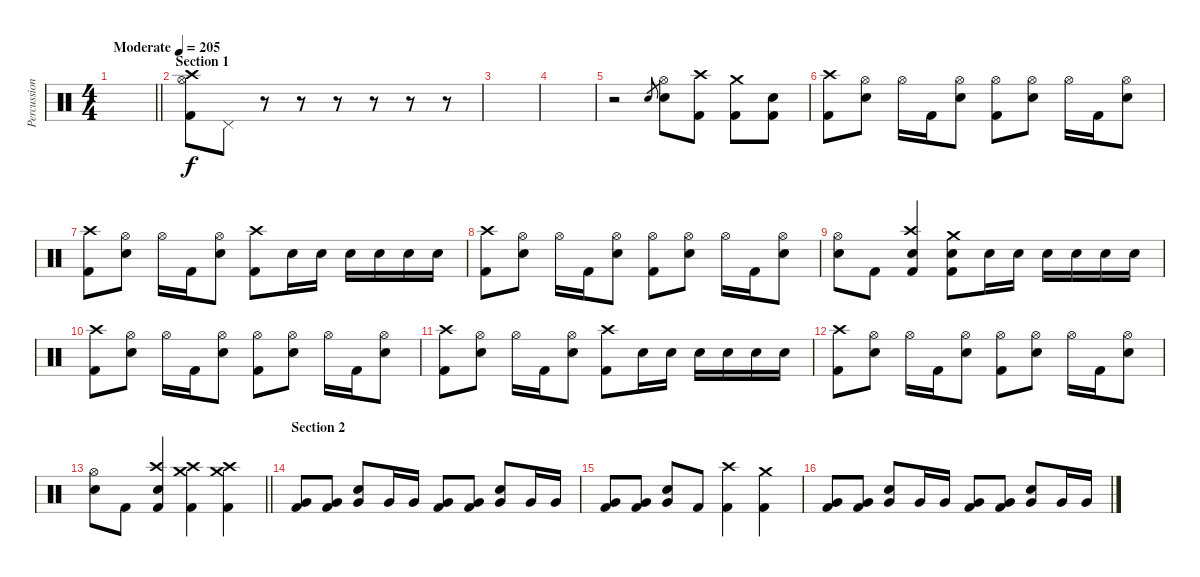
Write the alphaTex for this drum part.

\track ("Percussion" "Percussion") {instrument percussion}
\staff {score}
\articulation defaults
\ts (4 4)
\tempo (205 "Moderate")
\clef neutral
\barLineRight lightlight
\ks c
|
\section ("" "Section 1")
("Hi-Hat (open)" "Kick (hit) 2" "Crash high (hit)").8 "Pedal Hi-Hat (hit)".8 r.8 r.8 r.8 r.8 r.8 r.8 |
|
|
r.2 "Electric Snare (hit)".8{gr} ("Electric Snare (hit)" "Hi-Hat (open)").8 ("Crash high (hit)" "Kick (hit) 2").8 ("Crash medium (hit)" "Kick (hit) 2").8 ("Electric Snare (hit)" "Kick (hit) 2").8 |
("Crash high (hit)" "Kick (hit) 2").8 ("Hi-Hat (open)" "Electric Snare (hit)").8 "Hi-Hat (open)".16 "Kick (hit) 2".16 ("Hi-Hat (open)" "Electric Snare (hit)").8 ("Hi-Hat (open)" "Kick (hit) 2").8 ("Hi-Hat (open)" "Electric Snare (hit)").8 "Hi-Hat (open)".16 "Kick (hit) 2".16 ("Hi-Hat (open)" "Electric Snare (hit)").8 |
("Crash high (hit)" "Kick (hit) 2").8 ("Hi-Hat (open)" "Electric Snare (hit)").8 "Hi-Hat (open)".16 "Kick (hit) 2".16 ("Hi-Hat (open)" "Electric Snare (hit)").8 ("Crash high (hit)" "Kick (hit) 2").8 "Electric Snare (hit)".16 "Electric Snare (hit)".16 "Electric Snare (hit)".16 "Electric Snare (hit)".16 "Electric Snare (hit)".16 "Electric Snare (hit)".16 |
("Crash high (hit)" "Kick (hit) 2").8 ("Hi-Hat (open)" "Electric Snare (hit)").8 "Hi-Hat (open)".16 "Kick (hit) 2".16 ("Hi-Hat (open)" "Electric Snare (hit)").8 ("Hi-Hat (open)" "Kick (hit) 2").8 ("Hi-Hat (open)" "Electric Snare (hit)").8 "Hi-Hat (open)".16 "Kick (hit) 2".16 ("Hi-Hat (open)" "Electric Snare (hit)").8 |
("Hi-Hat (open)" "Electric Snare (hit)").8 "Kick (hit) 2".8 ("Crash high (hit)" "Electric Snare (hit)" "Kick (hit) 2").4 ("Crash medium (hit)" "Electric Snare (hit)" "Kick (hit) 2").8 "Electric Snare (hit)".16 "Electric Snare (hit)".16 "Electric Snare (hit)".16 "Electric Snare (hit)".16 "Electric Snare (hit)".16 "Electric Snare (hit)".16 |
("Crash high (hit)" "Kick (hit) 2").8 ("Hi-Hat (open)" "Electric Snare (hit)").8 "Hi-Hat (open)".16 "Kick (hit) 2".16 ("Hi-Hat (open)" "Electric Snare (hit)").8 ("Hi-Hat (open)" "Kick (hit) 2").8 ("Hi-Hat (open)" "Electric Snare (hit)").8 "Hi-Hat (open)".16 "Kick (hit) 2".16 ("Hi-Hat (open)" "Electric Snare (hit)").8 |
("Crash high (hit)" "Kick (hit) 2").8 ("Hi-Hat (open)" "Electric Snare (hit)").8 "Hi-Hat (open)".16 "Kick (hit) 2".16 ("Hi-Hat (open)" "Electric Snare (hit)").8 ("Crash high (hit)" "Kick (hit) 2").8 "Electric Snare (hit)".16 "Electric Snare (hit)".16 "Electric Snare (hit)".16 "Electric Snare (hit)".16 "Electric Snare (hit)".16 "Electric Snare (hit)".16 |
("Crash high (hit)" "Kick (hit) 2").8 ("Hi-Hat (open)" "Electric Snare (hit)").8 "Hi-Hat (open)".16 "Kick (hit) 2".16 ("Hi-Hat (open)" "Electric Snare (hit)").8 ("Hi-Hat (open)" "Kick (hit) 2").8 ("Hi-Hat (open)" "Electric Snare (hit)").8 "Hi-Hat (open)".16 "Kick (hit) 2".16 ("Hi-Hat (open)" "Electric Snare (hit)").8 |
\barLineRight lightlight
("Hi-Hat (open)" "Electric Snare (hit)").8 "Kick (hit) 2".8 ("Crash high (hit)" "Electric Snare (hit)" "Kick (hit) 2").4 ("Crash high (hit)" "Crash medium (hit)" "Kick (hit) 2").4 ("Crash high (hit)" "Crash medium (hit)" "Kick (hit) 2").4 |
\section ("" "Section 2")
("Very Low Tom (hit)" "Kick (hit) 2").8 ("Very Low Tom (hit)" "Kick (hit) 2").8 ("Very Low Tom (hit)" "Electric Snare (hit)").8 "Very Low Tom (hit)".16 "Very Low Tom (hit)".16 ("Very Low Tom (hit)" "Kick (hit) 2").8 ("Very Low Tom (hit)" "Kick (hit) 2").8 ("Very Low Tom (hit)" "Electric Snare (hit)").8 "Very Low Tom (hit)".16 "Very Low Tom (hit)".16 |
("Very Low Tom (hit)" "Kick (hit) 2").8 ("Very Low Tom (hit)" "Kick (hit) 2").8 ("Very Low Tom (hit)" "Electric Snare (hit)").8 "Kick (hit) 2".8 ("Crash high (hit)" "Kick (hit) 2").4 ("Crash medium (hit)" "Kick (hit) 2").4 |
("Very Low Tom (hit)" "Kick (hit) 2").8 ("Very Low Tom (hit)" "Kick (hit) 2").8 ("Very Low Tom (hit)" "Electric Snare (hit)").8 "Very Low Tom (hit)".16 "Very Low Tom (hit)".16 ("Very Low Tom (hit)" "Kick (hit) 2").8 ("Very Low Tom (hit)" "Kick (hit) 2").8 ("Very Low Tom (hit)" "Electric Snare (hit)").8 "Very Low Tom (hit)".16 "Very Low Tom (hit)".16
